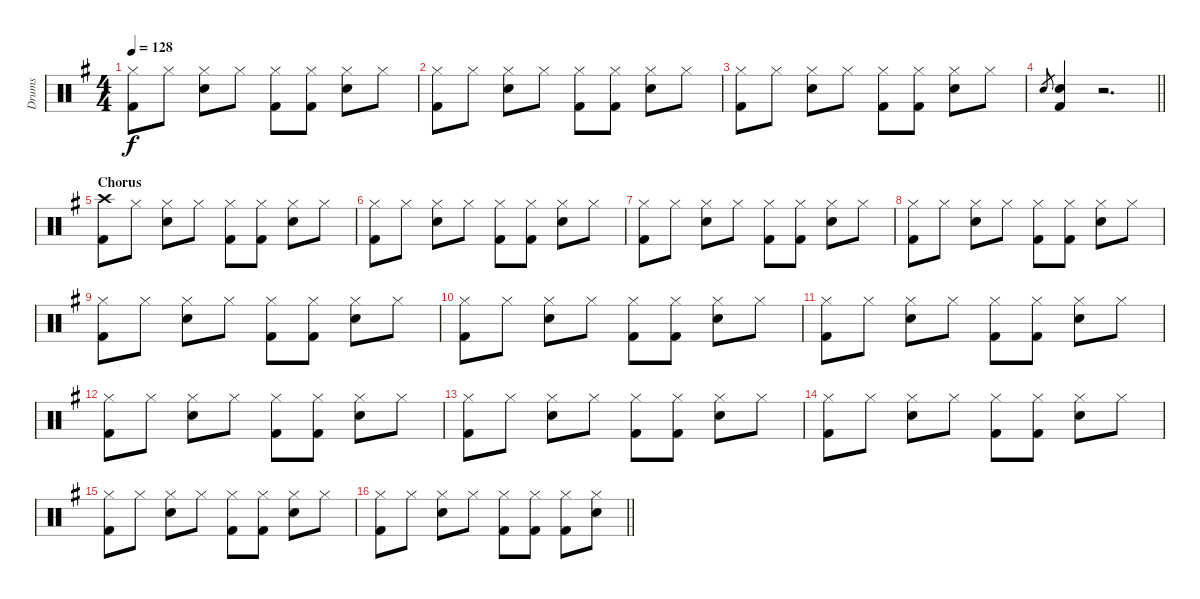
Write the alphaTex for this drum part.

\track ("Drums" "Drums") {instrument percussion}
\staff {score}
\articulation defaults
\ts (4 4)
\tempo 128
\clef neutral
\ks g
("Hi-Hat (closed)" "Kick (hit) 2").8{dy f} "Hi-Hat (closed)".8 ("Hi-Hat (closed)" "Snare (hit) 2").8 "Hi-Hat (closed)".8 ("Hi-Hat (closed)" "Kick (hit) 2").8 ("Hi-Hat (closed)" "Kick (hit) 2").8 ("Hi-Hat (closed)" "Snare (hit) 2").8 "Hi-Hat (closed)".8 |
("Hi-Hat (closed)" "Kick (hit) 2").8 "Hi-Hat (closed)".8 ("Hi-Hat (closed)" "Snare (hit) 2").8 "Hi-Hat (closed)".8 ("Hi-Hat (closed)" "Kick (hit) 2").8 ("Hi-Hat (closed)" "Kick (hit) 2").8 ("Hi-Hat (closed)" "Snare (hit) 2").8 "Hi-Hat (closed)".8 |
("Hi-Hat (closed)" "Kick (hit) 2").8 "Hi-Hat (closed)".8 ("Hi-Hat (closed)" "Snare (hit) 2").8 "Hi-Hat (closed)".8 ("Hi-Hat (closed)" "Kick (hit) 2").8 ("Hi-Hat (closed)" "Kick (hit) 2").8 ("Hi-Hat (closed)" "Snare (hit) 2").8 "Hi-Hat (closed)".8 |
\barLineRight lightlight "Snare (hit) 2".8{gr}
("Snare (hit) 2" "Kick (hit) 2").4 r.2{d} |
\section ("" "Chorus")
("Crash high (hit)" "Kick (hit) 2").8 "Hi-Hat (closed)".8 ("Hi-Hat (closed)" "Snare (hit) 2").8 "Hi-Hat (closed)".8 ("Hi-Hat (closed)" "Kick (hit) 2").8 ("Hi-Hat (closed)" "Kick (hit) 2").8 ("Hi-Hat (closed)" "Snare (hit) 2").8 "Hi-Hat (closed)".8 |
("Hi-Hat (closed)" "Kick (hit) 2").8 "Hi-Hat (closed)".8 ("Hi-Hat (closed)" "Snare (hit) 2").8 "Hi-Hat (closed)".8 ("Hi-Hat (closed)" "Kick (hit) 2").8 ("Hi-Hat (closed)" "Kick (hit) 2").8 ("Hi-Hat (closed)" "Snare (hit) 2").8 "Hi-Hat (closed)".8 |
("Hi-Hat (closed)" "Kick (hit) 2").8 "Hi-Hat (closed)".8 ("Hi-Hat (closed)" "Snare (hit) 2").8 "Hi-Hat (closed)".8 ("Hi-Hat (closed)" "Kick (hit) 2").8 ("Hi-Hat (closed)" "Kick (hit) 2").8 ("Hi-Hat (closed)" "Snare (hit) 2").8 "Hi-Hat (closed)".8 |
("Hi-Hat (closed)" "Kick (hit) 2").8 "Hi-Hat (closed)".8 ("Hi-Hat (closed)" "Snare (hit) 2").8 "Hi-Hat (closed)".8 ("Hi-Hat (closed)" "Kick (hit) 2").8 ("Hi-Hat (closed)" "Kick (hit) 2").8 ("Hi-Hat (closed)" "Snare (hit) 2").8 "Hi-Hat (closed)".8 |
("Hi-Hat (closed)" "Kick (hit) 2").8 "Hi-Hat (closed)".8 ("Hi-Hat (closed)" "Snare (hit) 2").8 "Hi-Hat (closed)".8 ("Hi-Hat (closed)" "Kick (hit) 2").8 ("Hi-Hat (closed)" "Kick (hit) 2").8 ("Hi-Hat (closed)" "Snare (hit) 2").8 "Hi-Hat (closed)".8 |
("Hi-Hat (closed)" "Kick (hit) 2").8 "Hi-Hat (closed)".8 ("Hi-Hat (closed)" "Snare (hit) 2").8 "Hi-Hat (closed)".8 ("Hi-Hat (closed)" "Kick (hit) 2").8 ("Hi-Hat (closed)" "Kick (hit) 2").8 ("Hi-Hat (closed)" "Snare (hit) 2").8 "Hi-Hat (closed)".8 |
("Hi-Hat (closed)" "Kick (hit) 2").8 "Hi-Hat (closed)".8 ("Hi-Hat (closed)" "Snare (hit) 2").8 "Hi-Hat (closed)".8 ("Hi-Hat (closed)" "Kick (hit) 2").8 ("Hi-Hat (closed)" "Kick (hit) 2").8 ("Hi-Hat (closed)" "Snare (hit) 2").8 "Hi-Hat (closed)".8 |
("Hi-Hat (closed)" "Kick (hit) 2").8 "Hi-Hat (closed)".8 ("Hi-Hat (closed)" "Snare (hit) 2").8 "Hi-Hat (closed)".8 ("Hi-Hat (closed)" "Kick (hit) 2").8 ("Hi-Hat (closed)" "Kick (hit) 2").8 ("Hi-Hat (closed)" "Snare (hit) 2").8 "Hi-Hat (closed)".8 |
("Hi-Hat (closed)" "Kick (hit) 2").8 "Hi-Hat (closed)".8 ("Hi-Hat (closed)" "Snare (hit) 2").8 "Hi-Hat (closed)".8 ("Hi-Hat (closed)" "Kick (hit) 2").8 ("Hi-Hat (closed)" "Kick (hit) 2").8 ("Hi-Hat (closed)" "Snare (hit) 2").8 "Hi-Hat (closed)".8 |
("Hi-Hat (closed)" "Kick (hit) 2").8 "Hi-Hat (closed)".8 ("Hi-Hat (closed)" "Snare (hit) 2").8 "Hi-Hat (closed)".8 ("Hi-Hat (closed)" "Kick (hit) 2").8 ("Hi-Hat (closed)" "Kick (hit) 2").8 ("Hi-Hat (closed)" "Snare (hit) 2").8 "Hi-Hat (closed)".8 |
("Hi-Hat (closed)" "Kick (hit) 2").8 "Hi-Hat (closed)".8 ("Hi-Hat (closed)" "Snare (hit) 2").8 "Hi-Hat (closed)".8 ("Hi-Hat (closed)" "Kick (hit) 2").8 ("Hi-Hat (closed)" "Kick (hit) 2").8 ("Hi-Hat (closed)" "Snare (hit) 2").8 "Hi-Hat (closed)".8 |
\barLineRight lightlight
("Hi-Hat (closed)" "Kick (hit) 2").8 "Hi-Hat (closed)".8 ("Hi-Hat (closed)" "Snare (hit) 2").8 "Hi-Hat (closed)".8 ("Hi-Hat (closed)" "Kick (hit) 2").8 ("Hi-Hat (closed)" "Kick (hit) 2").8 ("Hi-Hat (closed)" "Kick (hit) 2").8 ("Hi-Hat (closed)" "Snare (hit) 2").8
